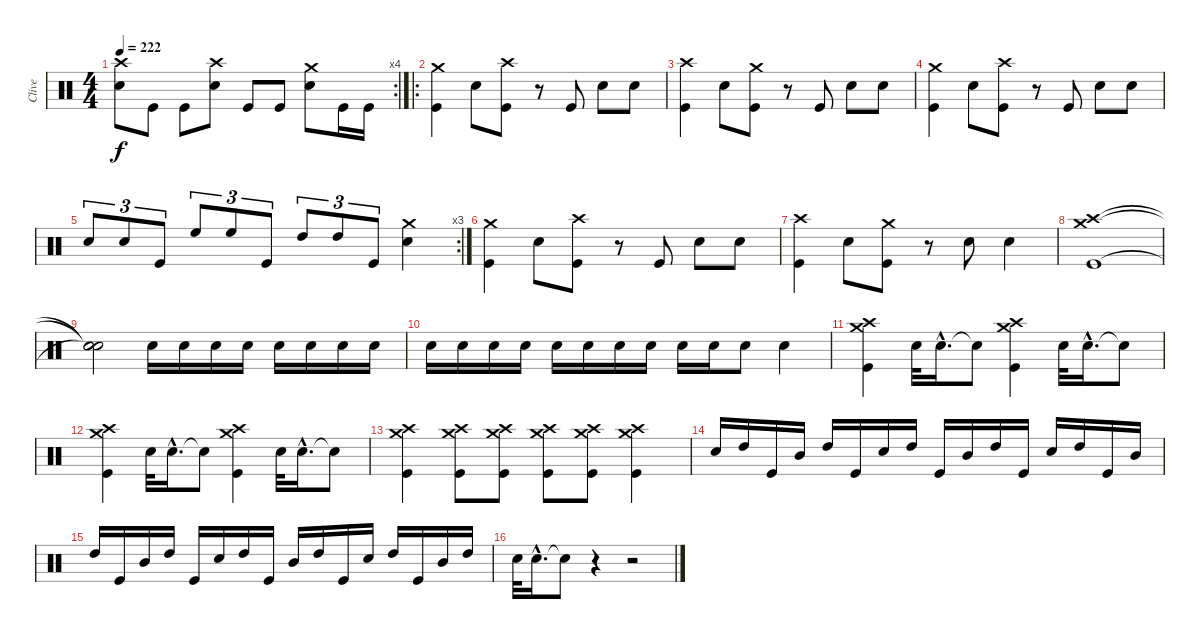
\track ("Clive" "Clive") {instrument percussion}
\staff {score}
\articulation defaults
\rc 4
\ts (4 4)
\tempo 222
\clef neutral
\ks c
("Crash high (hit)" "Snare (hit) 2").8{dy f} "Kick (hit)".8 "Kick (hit)".8 ("Crash high (hit)" "Snare (hit) 2").8 "Kick (hit)".8 "Kick (hit)".8 ("Crash medium (hit)" "Snare (hit) 2").8 "Kick (hit)".16 "Kick (hit)".16 |
\ro
("Crash medium (hit)" "Kick (hit)").4 "Snare (hit) 2".8 ("Crash high (hit)" "Kick (hit)").8 r.8 "Kick (hit)".8 "Snare (hit) 2".8 "Snare (hit) 2".8 |
("Crash high (hit)" "Kick (hit)").4 "Snare (hit) 2".8 ("Crash medium (hit)" "Kick (hit)").8 r.8 "Kick (hit)".8 "Snare (hit) 2".8 "Snare (hit) 2".8 |
("Crash medium (hit)" "Kick (hit)").4 "Snare (hit) 2".8 ("Crash high (hit)" "Kick (hit)").8 r.8 "Kick (hit)".8 "Snare (hit) 2".8 "Snare (hit) 2".8 |
\rc 3 "Snare (hit) 2".8{tu (3 2)} "Snare (hit) 2".8{tu (3 2)} "Kick (hit)".8{tu (3 2)} "High Floor Tom (hit)".8{tu (3 2)} "High Floor Tom (hit)".8{tu (3 2)} "Kick (hit)".8{tu (3 2)} "High Tom (hit)".8{tu (3 2)} "High Tom (hit)".8{tu (3 2)} "Kick (hit)".8{tu (3 2)}
("Crash medium (hit)" "Snare (hit) 2").4 |
("Crash medium (hit)" "Kick (hit)").4 "Snare (hit) 2".8 ("Crash high (hit)" "Kick (hit)").8 r.8 "Kick (hit)".8 "Snare (hit) 2".8 "Snare (hit) 2".8 |
("Crash high (hit)" "Kick (hit)").4 "Snare (hit) 2".8 ("Crash medium (hit)" "Kick (hit)").8 r.8 "Snare (hit) 2".8 "Snare (hit) 2".4 |
("Crash medium (hit)" "Crash high (hit)" "Kick (hit)").1 |
("Snare (hit)"{t} "Snare (hit)"{t} "Snare (hit)"{t}).2 "Snare (hit) 2".16 "Snare (hit) 2".16 "Snare (hit) 2".16 "Snare (hit) 2".16 "Snare (hit) 2".16 "Snare (hit) 2".16 "Snare (hit) 2".16 "Snare (hit) 2".16 |
"Snare (hit) 2".16 "Snare (hit) 2".16 "Snare (hit) 2".16 "Snare (hit) 2".16 "Snare (hit) 2".16 "Snare (hit) 2".16 "Snare (hit) 2".16 "Snare (hit) 2".16 "Snare (hit) 2".16 "Snare (hit) 2".16 "Snare (hit) 2".8 "Snare (hit) 2".4 |
("Crash medium (hit)" "Crash high (hit)" "Kick (hit)").4 "Snare (hit) 2".32 "Snare (hit) 2"{hac}.16{d} "Snare (hit)"{t}.8 ("Crash medium (hit)" "Crash high (hit)" "Kick (hit)").4 "Snare (hit) 2".32 "Snare (hit) 2"{hac}.16{d} "Snare (hit)"{t}.8 |
("Crash medium (hit)" "Crash high (hit)" "Kick (hit)").4 "Snare (hit) 2".32 "Snare (hit) 2"{hac}.16{d} "Snare (hit)"{t}.8 ("Crash medium (hit)" "Crash high (hit)" "Kick (hit)").4 "Snare (hit) 2".32 "Snare (hit) 2"{hac}.16{d} "Snare (hit)"{t}.8 |
("Crash high (hit)" "Crash medium (hit)" "Kick (hit)").4 ("Crash high (hit)" "Crash medium (hit)" "Kick (hit)").8 ("Crash medium (hit)" "Crash high (hit)" "Kick (hit)").8 ("Crash medium (hit)" "Crash high (hit)" "Kick (hit)").8 ("Crash high (hit)" "Crash medium (hit)" "Kick (hit)").8 ("Crash medium (hit)" "Crash high (hit)" "Kick (hit)").4 |
"Snare (hit) 2".16 "High Tom (hit)".16 "Kick (hit)".16 "Mid Tom (hit)".16 "High Tom (hit)".16 "Kick (hit)".16 "Snare (hit) 2".16 "High Tom (hit)".16 "Kick (hit)".16 "Mid Tom (hit)".16 "High Tom (hit)".16 "Kick (hit)".16 "Snare (hit) 2".16 "High Tom (hit)".16 "Kick (hit)".16 "Mid Tom (hit)".16 |
"High Tom (hit)".16 "Kick (hit)".16 "Mid Tom (hit)".16 "High Tom (hit)".16 "Kick (hit)".16 "Snare (hit) 2".16 "High Tom (hit)".16 "Kick (hit)".16 "Mid Tom (hit)".16 "High Tom (hit)".16 "Kick (hit)".16 "Snare (hit) 2".16 "High Tom (hit)".16 "Kick (hit)".16 "Mid Tom (hit)".16 "High Tom (hit)".16 |
"Snare (hit) 2".32 "Snare (hit) 2"{hac}.16{d} "Snare (hit)"{t}.8 r.4 r.2
